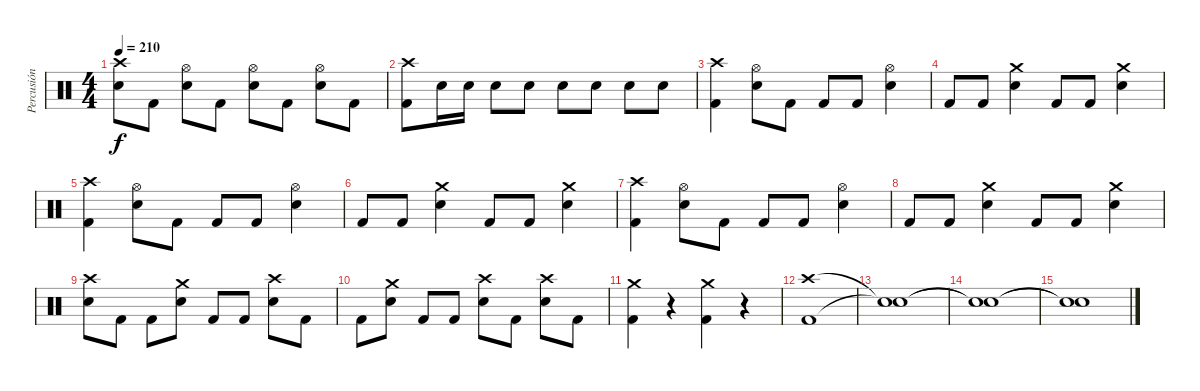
\track ("Percusión" "Percusión") {instrument percussion}
\staff {score}
\articulation defaults
\ts (4 4)
\tempo 210
\clef neutral
\ks c
("Crash high (hit)" "Electric Snare (hit)").8{dy f} "Kick (hit) 2".8 ("Hi-Hat (open)" "Electric Snare (hit)").8 "Kick (hit) 2".8 ("Hi-Hat (open)" "Electric Snare (hit)").8 "Kick (hit) 2".8 ("Hi-Hat (open)" "Electric Snare (hit)").8 "Kick (hit) 2".8 |
("Crash high (hit)" "Kick (hit) 2").8 "Electric Snare (hit)".16 "Electric Snare (hit)".16 "Electric Snare (hit)".8 "Electric Snare (hit)".8 "Electric Snare (hit)".8 "Electric Snare (hit)".8 "Electric Snare (hit)".8 "Electric Snare (hit)".8 |
("Crash high (hit)" "Kick (hit) 2").4 ("Hi-Hat (open)" "Electric Snare (hit)").8 "Kick (hit) 2".8 "Kick (hit) 2".8 "Kick (hit) 2".8 ("Hi-Hat (open)" "Electric Snare (hit)").4 |
"Kick (hit) 2".8 "Kick (hit) 2".8 ("Crash medium (hit)" "Electric Snare (hit)").4 "Kick (hit) 2".8 "Kick (hit) 2".8 ("Crash medium (hit)" "Electric Snare (hit)").4 |
("Crash high (hit)" "Kick (hit) 2").4 ("Hi-Hat (open)" "Electric Snare (hit)").8 "Kick (hit) 2".8 "Kick (hit) 2".8 "Kick (hit) 2".8 ("Hi-Hat (open)" "Electric Snare (hit)").4 |
"Kick (hit) 2".8 "Kick (hit) 2".8 ("Crash medium (hit)" "Electric Snare (hit)").4 "Kick (hit) 2".8 "Kick (hit) 2".8 ("Crash medium (hit)" "Electric Snare (hit)").4 |
("Crash high (hit)" "Kick (hit) 2").4 ("Hi-Hat (open)" "Electric Snare (hit)").8 "Kick (hit) 2".8 "Kick (hit) 2".8 "Kick (hit) 2".8 ("Hi-Hat (open)" "Electric Snare (hit)").4 |
"Kick (hit) 2".8 "Kick (hit) 2".8 ("Crash medium (hit)" "Electric Snare (hit)").4 "Kick (hit) 2".8 "Kick (hit) 2".8 ("Crash medium (hit)" "Electric Snare (hit)").4 |
("Crash high (hit)" "Electric Snare (hit)").8 "Kick (hit) 2".8 "Kick (hit) 2".8 ("Crash medium (hit)" "Electric Snare (hit)").8 "Kick (hit) 2".8 "Kick (hit) 2".8 ("Crash high (hit)" "Electric Snare (hit)").8 "Kick (hit) 2".8 |
"Kick (hit) 2".8 ("Crash medium (hit)" "Electric Snare (hit)").8 "Kick (hit) 2".8 "Kick (hit) 2".8 ("Crash high (hit)" "Electric Snare (hit)").8 "Kick (hit) 2".8 ("Crash high (hit)" "Electric Snare (hit)").8 "Kick (hit) 2".8 |
("Crash medium (hit)" "Kick (hit) 2").4 r.4 ("Crash medium (hit)" "Kick (hit) 2").4 r.4 |
("Crash high (hit)" "Kick (hit) 2").1 |
("Snare (hit)"{t} "Snare (hit)"{t}).1 |
("Snare (hit)"{t} "Snare (hit)"{t}).1 |
("Snare (hit)"{t} "Snare (hit)"{t}).1
